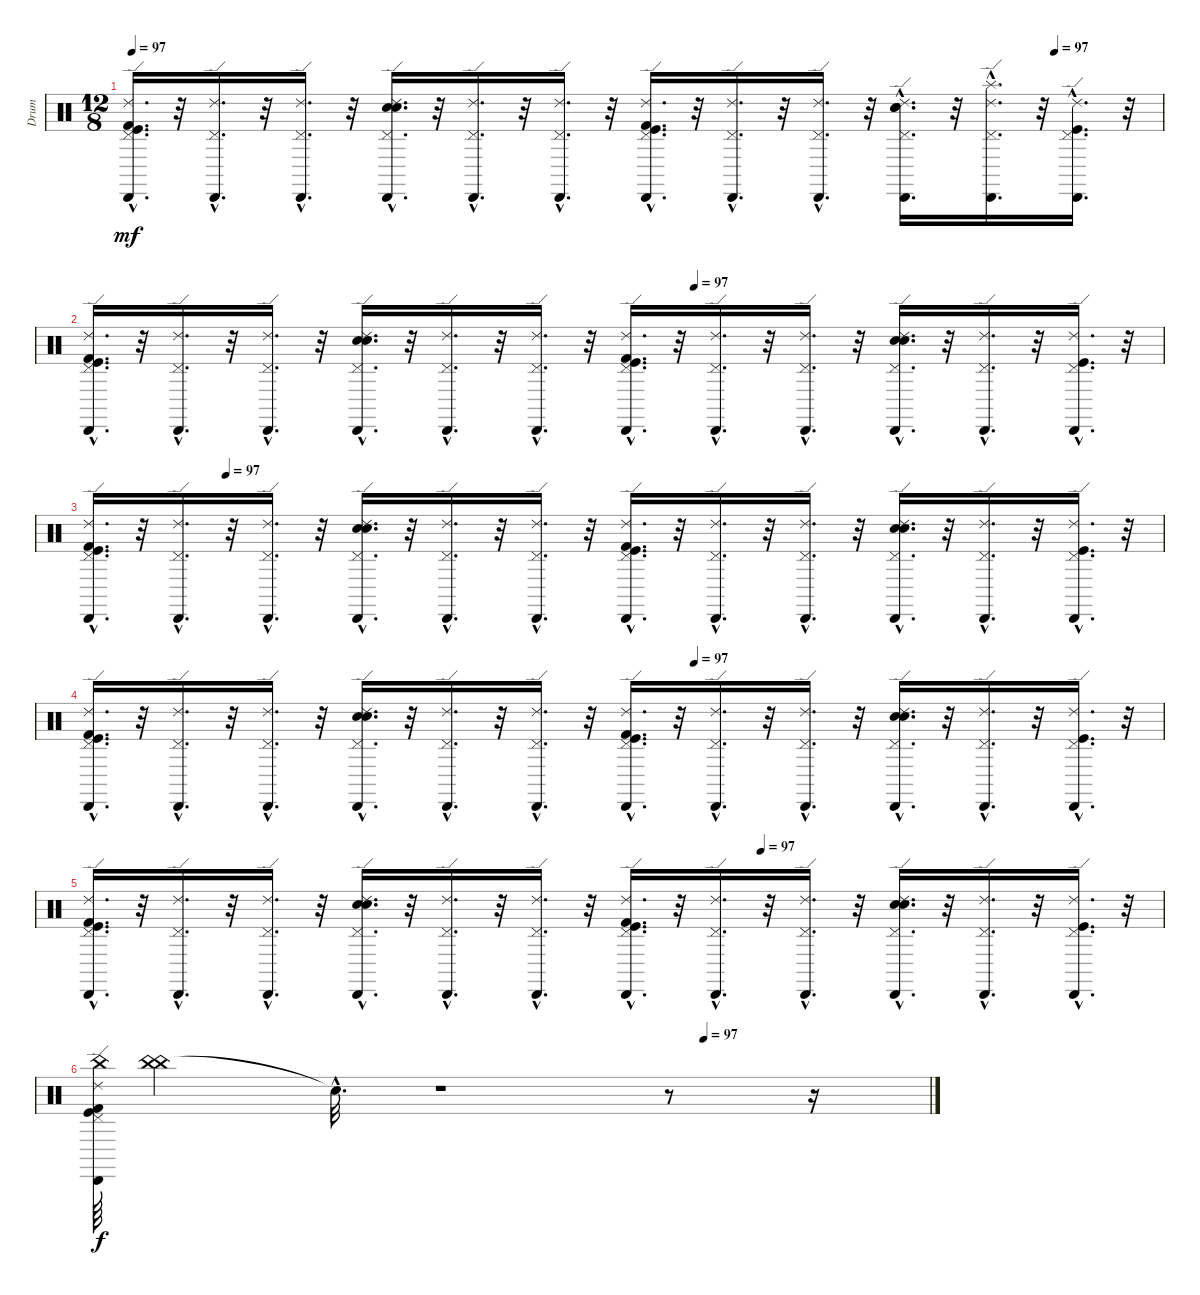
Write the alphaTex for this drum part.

\track ("Drum" "Drum") {instrument percussion}
\staff {score}
\articulation defaults
\ts (12 8)
\tempo 97
\tempo (97 0.8958333333333334)
\clef neutral
\ks c
("Kick (hit) 2"{hac} "Ride (edge) 2"{hac} "Cabasa (hit)"{hac} "Kick (hit)"{hac} "Pedal Hi-Hat (hit)"{hac}).16{d dy mf} r.32 ("Ride (edge) 2"{hac} "Cabasa (hit)"{hac} "Pedal Hi-Hat (hit)"{hac}).16{d} r.32 ("Ride (edge) 2"{hac} "Cabasa (hit)"{hac} "Pedal Hi-Hat (hit)"{hac}).16{d} r.32 ("Ride (edge) 2"{hac} "Cabasa (hit)"{hac} "Electric Snare (hit)"{hac} "Snare (hit) 2"{hac} "Pedal Hi-Hat (hit)"{hac}).16{d} r.32 ("Ride (edge) 2"{hac} "Cabasa (hit)"{hac} "Pedal Hi-Hat (hit)"{hac}).16{d} r.32 ("Ride (edge) 2"{hac} "Cabasa (hit)"{hac} "Pedal Hi-Hat (hit)"{hac}).16{d} r.32 ("Kick (hit) 2"{hac} "Ride (edge) 2"{hac} "Cabasa (hit)"{hac} "Kick (hit)"{hac} "Pedal Hi-Hat (hit)"{hac}).16{d} r.32 ("Ride (edge) 2"{hac} "Cabasa (hit)"{hac} "Pedal Hi-Hat (hit)"{hac}).16{d} r.32 ("Ride (edge) 2"{hac} "Cabasa (hit)"{hac} "Pedal Hi-Hat (hit)"{hac}).16{d} r.32 ("Ride (edge) 2"{hac} "Cabasa (hit)"{hac} "Electric Snare (hit)"{hac} "Snare (hit) 2"{hac} "Pedal Hi-Hat (hit)"{hac}).16{d} r.32 ("Ride (edge) 2"{hac} "Cabasa (hit)"{hac} "Pedal Hi-Hat (hit)"{hac} "Splash (hit)"{hac}).16{d} r.32 ("Ride (edge) 2"{hac} "Cabasa (hit)"{hac} "Pedal Hi-Hat (hit)"{hac} "Kick (hit)"{hac}).16{d} r.32 |
\tempo (97 0.5625)
("Ride (edge) 2"{hac} "Kick (hit) 2"{hac} "Pedal Hi-Hat (hit)"{hac} "Cabasa (hit)"{hac} "Kick (hit)"{hac}).16{d} r.32 ("Pedal Hi-Hat (hit)"{hac} "Cabasa (hit)"{hac} "Ride (edge) 2"{hac}).16{d} r.32 ("Pedal Hi-Hat (hit)"{hac} "Cabasa (hit)"{hac} "Ride (edge) 2"{hac}).16{d} r.32 ("Pedal Hi-Hat (hit)"{hac} "Ride (edge) 2"{hac} "Snare (hit) 2"{hac} "Cabasa (hit)"{hac} "Electric Snare (hit)"{hac}).16{d} r.32 ("Cabasa (hit)"{hac} "Pedal Hi-Hat (hit)"{hac} "Ride (edge) 2"{hac}).16{d} r.32 ("Pedal Hi-Hat (hit)"{hac} "Cabasa (hit)"{hac} "Ride (edge) 2"{hac}).16{d} r.32 ("Pedal Hi-Hat (hit)"{hac} "Ride (edge) 2"{hac} "Kick (hit) 2"{hac} "Kick (hit)"{hac} "Cabasa (hit)"{hac}).16{d} r.32 ("Pedal Hi-Hat (hit)"{hac} "Cabasa (hit)"{hac} "Ride (edge) 2"{hac}).16{d} r.32 ("Pedal Hi-Hat (hit)"{hac} "Cabasa (hit)"{hac} "Ride (edge) 2"{hac}).16{d} r.32 ("Ride (edge) 2"{hac} "Cabasa (hit)"{hac} "Pedal Hi-Hat (hit)"{hac} "Electric Snare (hit)"{hac} "Snare (hit) 2"{hac}).16{d} r.32 ("Cabasa (hit)"{hac} "Pedal Hi-Hat (hit)"{hac} "Ride (edge) 2"{hac}).16{d} r.32 ("Kick (hit)"{hac} "Pedal Hi-Hat (hit)"{hac} "Cabasa (hit)"{hac} "Ride (edge) 2"{hac}).16{d} r.32 |
\tempo (97 0.125)
("Cabasa (hit)"{hac} "Kick (hit)"{hac} "Pedal Hi-Hat (hit)"{hac} "Kick (hit) 2"{hac} "Ride (edge) 2"{hac}).16{d} r.32 ("Pedal Hi-Hat (hit)"{hac} "Cabasa (hit)"{hac} "Ride (edge) 2"{hac}).16{d} r.32 ("Pedal Hi-Hat (hit)"{hac} "Cabasa (hit)"{hac} "Ride (edge) 2"{hac}).16{d} r.32 ("Pedal Hi-Hat (hit)"{hac} "Electric Snare (hit)"{hac} "Snare (hit) 2"{hac} "Ride (edge) 2"{hac} "Cabasa (hit)"{hac}).16{d} r.32 ("Cabasa (hit)"{hac} "Pedal Hi-Hat (hit)"{hac} "Ride (edge) 2"{hac}).16{d} r.32 ("Cabasa (hit)"{hac} "Pedal Hi-Hat (hit)"{hac} "Ride (edge) 2"{hac}).16{d} r.32 ("Pedal Hi-Hat (hit)"{hac} "Ride (edge) 2"{hac} "Kick (hit) 2"{hac} "Kick (hit)"{hac} "Cabasa (hit)"{hac}).16{d} r.32 ("Cabasa (hit)"{hac} "Pedal Hi-Hat (hit)"{hac} "Ride (edge) 2"{hac}).16{d} r.32 ("Pedal Hi-Hat (hit)"{hac} "Cabasa (hit)"{hac} "Ride (edge) 2"{hac}).16{d} r.32 ("Cabasa (hit)"{hac} "Pedal Hi-Hat (hit)"{hac} "Ride (edge) 2"{hac} "Snare (hit) 2"{hac} "Electric Snare (hit)"{hac}).16{d} r.32 ("Cabasa (hit)"{hac} "Pedal Hi-Hat (hit)"{hac} "Ride (edge) 2"{hac}).16{d} r.32 ("Kick (hit)"{hac} "Pedal Hi-Hat (hit)"{hac} "Cabasa (hit)"{hac} "Ride (edge) 2"{hac}).16{d} r.32 |
\tempo (97 0.5625)
("Pedal Hi-Hat (hit)"{hac} "Kick (hit) 2"{hac} "Ride (edge) 2"{hac} "Cabasa (hit)"{hac} "Kick (hit)"{hac}).16{d} r.32 ("Pedal Hi-Hat (hit)"{hac} "Cabasa (hit)"{hac} "Ride (edge) 2"{hac}).16{d} r.32 ("Pedal Hi-Hat (hit)"{hac} "Cabasa (hit)"{hac} "Ride (edge) 2"{hac}).16{d} r.32 ("Ride (edge) 2"{hac} "Snare (hit) 2"{hac} "Cabasa (hit)"{hac} "Electric Snare (hit)"{hac} "Pedal Hi-Hat (hit)"{hac}).16{d} r.32 ("Pedal Hi-Hat (hit)"{hac} "Cabasa (hit)"{hac} "Ride (edge) 2"{hac}).16{d} r.32 ("Pedal Hi-Hat (hit)"{hac} "Cabasa (hit)"{hac} "Ride (edge) 2"{hac}).16{d} r.32 ("Kick (hit) 2"{hac} "Cabasa (hit)"{hac} "Kick (hit)"{hac} "Ride (edge) 2"{hac} "Pedal Hi-Hat (hit)"{hac}).16{d} r.32 ("Cabasa (hit)"{hac} "Pedal Hi-Hat (hit)"{hac} "Ride (edge) 2"{hac}).16{d} r.32 ("Pedal Hi-Hat (hit)"{hac} "Cabasa (hit)"{hac} "Ride (edge) 2"{hac}).16{d} r.32 ("Pedal Hi-Hat (hit)"{hac} "Snare (hit) 2"{hac} "Cabasa (hit)"{hac} "Ride (edge) 2"{hac} "Electric Snare (hit)"{hac}).16{d} r.32 ("Cabasa (hit)"{hac} "Pedal Hi-Hat (hit)"{hac} "Ride (edge) 2"{hac}).16{d} r.32 ("Kick (hit)"{hac} "Pedal Hi-Hat (hit)"{hac} "Cabasa (hit)"{hac} "Ride (edge) 2"{hac}).16{d} r.32 |
\tempo (97 0.625)
("Pedal Hi-Hat (hit)"{hac} "Kick (hit)"{hac} "Cabasa (hit)"{hac} "Ride (edge) 2"{hac} "Kick (hit) 2"{hac}).16{d} r.32 ("Pedal Hi-Hat (hit)"{hac} "Cabasa (hit)"{hac} "Ride (edge) 2"{hac}).16{d} r.32 ("Pedal Hi-Hat (hit)"{hac} "Cabasa (hit)"{hac} "Ride (edge) 2"{hac}).16{d} r.32 ("Pedal Hi-Hat (hit)"{hac} "Snare (hit) 2"{hac} "Electric Snare (hit)"{hac} "Cabasa (hit)"{hac} "Ride (edge) 2"{hac}).16{d} r.32 ("Pedal Hi-Hat (hit)"{hac} "Cabasa (hit)"{hac} "Ride (edge) 2"{hac}).16{d} r.32 ("Pedal Hi-Hat (hit)"{hac} "Cabasa (hit)"{hac} "Ride (edge) 2"{hac}).16{d} r.32 ("Pedal Hi-Hat (hit)"{hac} "Kick (hit)"{hac} "Cabasa (hit)"{hac} "Ride (edge) 2"{hac} "Kick (hit) 2"{hac}).16{d} r.32 ("Pedal Hi-Hat (hit)"{hac} "Cabasa (hit)"{hac} "Ride (edge) 2"{hac}).16{d} r.32 ("Pedal Hi-Hat (hit)"{hac} "Cabasa (hit)"{hac} "Ride (edge) 2"{hac}).16{d} r.32 ("Pedal Hi-Hat (hit)"{hac} "Snare (hit) 2"{hac} "Electric Snare (hit)"{hac} "Cabasa (hit)"{hac} "Ride (edge) 2"{hac}).16{d} r.32 ("Pedal Hi-Hat (hit)"{hac} "Cabasa (hit)"{hac} "Ride (edge) 2"{hac}).16{d} r.32 ("Kick (hit)"{hac} "Pedal Hi-Hat (hit)"{hac} "Cabasa (hit)"{hac} "Ride (edge) 2"{hac}).16{d} r.32 |
\tempo (97 0.7291666666666666)
("Kick (hit) 2" "Ride (edge) 2" "Pedal Hi-Hat (hit)" "China (hit)" "Kick (hit)" "Cabasa (hit)").64{dy f} ("China (hit)" "China (hit)").4 "Snare (hit)"{hac t}.32{d} r.1 r.8 r.16
